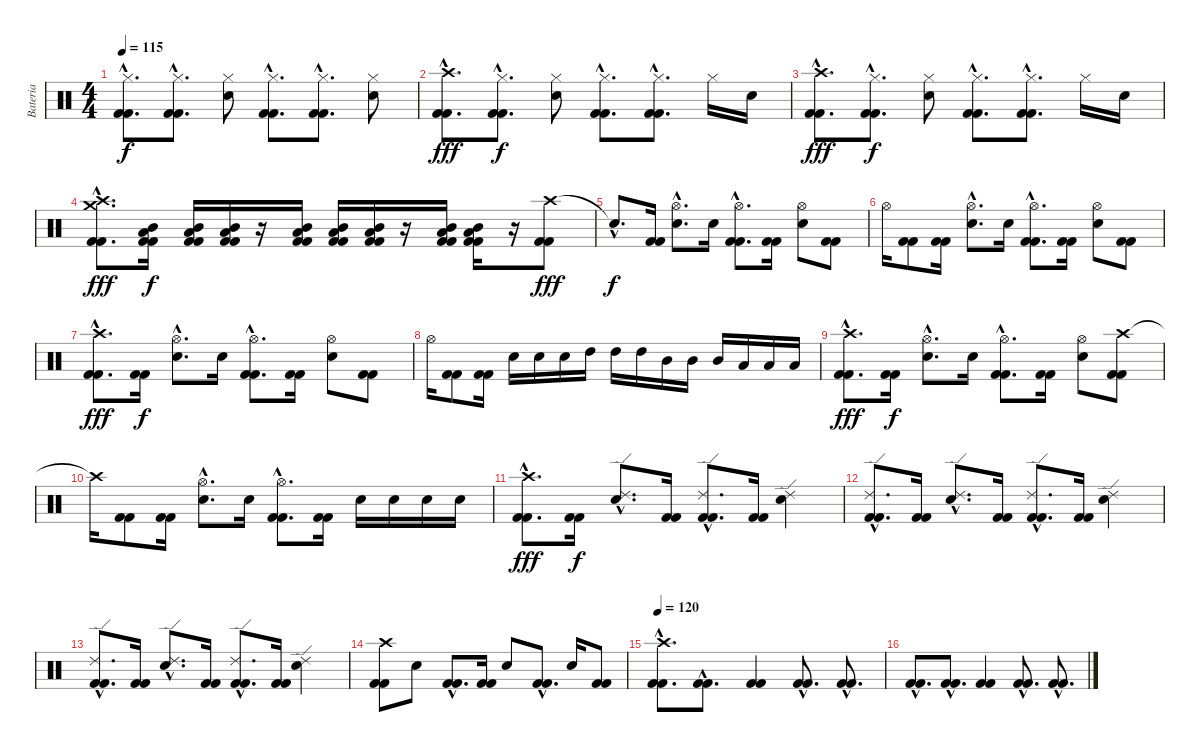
\track ("Bateria" "Bateria") {instrument percussion}
\staff {score}
\articulation defaults
\ts (4 4)
\tempo 115
\clef neutral
\ks c
("Hi-Hat (closed)"{hac} "Kick (hit) 2"{hac} "Kick (hit) 2"{hac}).8{d dy f} ("Hi-Hat (closed)"{hac} "Kick (hit) 2"{hac} "Kick (hit) 2"{hac}).8{d} ("Hi-Hat (closed)" "Electric Snare (hit)").8 ("Hi-Hat (closed)"{hac} "Kick (hit) 2"{hac} "Kick (hit) 2"{hac}).8{d} ("Hi-Hat (closed)"{hac} "Kick (hit) 2"{hac} "Kick (hit) 2"{hac}).8{d} ("Hi-Hat (closed)" "Electric Snare (hit)").8 |
("Crash high (hit)" "Kick (hit) 2"{hac} "Kick (hit) 2"{hac}).8{d dy fff} ("Hi-Hat (closed)"{hac} "Kick (hit) 2"{hac} "Kick (hit) 2"{hac}).8{d dy f} ("Hi-Hat (closed)" "Electric Snare (hit)").8 ("Hi-Hat (closed)"{hac} "Kick (hit) 2"{hac} "Kick (hit) 2"{hac}).8{d} ("Hi-Hat (closed)"{hac} "Kick (hit) 2"{hac} "Kick (hit) 2"{hac}).8{d} "Hi-Hat (closed)".16 "Electric Snare (hit)".16 |
("Crash high (hit)" "Kick (hit) 2"{hac} "Kick (hit) 2"{hac}).8{d dy fff} ("Hi-Hat (closed)"{hac} "Kick (hit) 2"{hac} "Kick (hit) 2"{hac}).8{d dy f} ("Hi-Hat (closed)" "Electric Snare (hit)").8 ("Hi-Hat (closed)"{hac} "Kick (hit) 2"{hac} "Kick (hit) 2"{hac}).8{d} ("Hi-Hat (closed)"{hac} "Kick (hit) 2"{hac} "Kick (hit) 2"{hac}).8{d} "Hi-Hat (closed)".16 "Electric Snare (hit)".16 |
("Crash high (hit)" "Crash medium (hit)" "Kick (hit) 2"{hac} "Kick (hit) 2"{hac}).8{d dy fff} ("Mid Tom (hit)" "Low Tom (hit)" "Kick (hit) 2" "Kick (hit) 2").16{dy f} ("Mid Tom (hit)" "Low Tom (hit)" "Kick (hit) 2" "Kick (hit) 2").16 ("Mid Tom (hit)" "Low Tom (hit)" "Kick (hit) 2" "Kick (hit) 2").16 r.16 ("Mid Tom (hit)" "Low Tom (hit)" "Kick (hit) 2" "Kick (hit) 2").16 ("Mid Tom (hit)" "Low Tom (hit)" "Kick (hit) 2" "Kick (hit) 2").16 ("Mid Tom (hit)" "Low Tom (hit)" "Kick (hit) 2" "Kick (hit) 2").16 r.16 ("Mid Tom (hit)" "Low Tom (hit)" "Kick (hit) 2" "Kick (hit) 2").16 ("Mid Tom (hit)" "Low Tom (hit)" "Kick (hit) 2" "Kick (hit) 2").16 r.16 ("Crash high (hit)" "Kick (hit) 2" "Kick (hit) 2").8{dy fff} |
"Snare (hit)"{hac t}.8{d dy f} ("Kick (hit) 2" "Kick (hit) 2").16 ("Hi-Hat (open)"{hac} "Electric Snare (hit)"{hac}).8{d} "Electric Snare (hit)".16 ("Hi-Hat (open)"{hac} "Kick (hit) 2"{hac} "Kick (hit) 2"{hac}).8{d} ("Kick (hit) 2" "Kick (hit) 2").16 ("Hi-Hat (open)" "Electric Snare (hit)").8 ("Kick (hit) 2" "Kick (hit) 2").8 |
"Hi-Hat (open)".16 ("Kick (hit) 2" "Kick (hit) 2").8 ("Kick (hit) 2" "Kick (hit) 2").16 ("Hi-Hat (open)"{hac} "Electric Snare (hit)"{hac}).8{d} "Electric Snare (hit)".16 ("Hi-Hat (open)"{hac} "Kick (hit) 2"{hac} "Kick (hit) 2"{hac}).8{d} ("Kick (hit) 2" "Kick (hit) 2").16 ("Hi-Hat (open)" "Electric Snare (hit)").8 ("Kick (hit) 2" "Kick (hit) 2").8 |
("Crash high (hit)" "Kick (hit) 2"{hac} "Kick (hit) 2"{hac}).8{d dy fff} ("Kick (hit) 2" "Kick (hit) 2").16{dy f} ("Hi-Hat (open)"{hac} "Electric Snare (hit)"{hac}).8{d} "Electric Snare (hit)".16 ("Hi-Hat (open)"{hac} "Kick (hit) 2"{hac} "Kick (hit) 2"{hac}).8{d} ("Kick (hit) 2" "Kick (hit) 2").16 ("Hi-Hat (open)" "Electric Snare (hit)").8 ("Kick (hit) 2" "Kick (hit) 2").8 |
"Hi-Hat (open)".16 ("Kick (hit) 2" "Kick (hit) 2").8 ("Kick (hit) 2" "Kick (hit) 2").16 "Electric Snare (hit)".16 "Electric Snare (hit)".16 "Electric Snare (hit)".16 "High Tom (hit)".16 "High Tom (hit)".16 "High Tom (hit)".16 "Mid Tom (hit)".16 "Mid Tom (hit)".16 "Mid Tom (hit)".16 "Low Tom (hit)".16 "Low Tom (hit)".16 "Low Tom (hit)".16 |
("Crash high (hit)" "Kick (hit) 2"{hac} "Kick (hit) 2"{hac}).8{d dy fff} ("Kick (hit) 2" "Kick (hit) 2").16{dy f} ("Hi-Hat (open)"{hac} "Electric Snare (hit)"{hac}).8{d} "Electric Snare (hit)".16 ("Hi-Hat (open)"{hac} "Kick (hit) 2"{hac} "Kick (hit) 2"{hac}).8{d} ("Kick (hit) 2" "Kick (hit) 2").16 ("Hi-Hat (open)" "Electric Snare (hit)").8 ("Crash high (hit)" "Kick (hit) 2" "Kick (hit) 2").8 |
"Crash high (hit)"{t}.16 ("Kick (hit) 2" "Kick (hit) 2").8 ("Kick (hit) 2" "Kick (hit) 2").16 ("Hi-Hat (open)"{hac} "Electric Snare (hit)"{hac}).8{d} "Electric Snare (hit)".16 ("Hi-Hat (open)"{hac} "Kick (hit) 2"{hac} "Kick (hit) 2"{hac}).8{d} ("Kick (hit) 2" "Kick (hit) 2").16 "Electric Snare (hit)".16 "Electric Snare (hit)".16 "Electric Snare (hit)".16 "Electric Snare (hit)".16 |
("Crash high (hit)" "Kick (hit) 2"{hac} "Kick (hit) 2"{hac}).8{d dy fff} ("Kick (hit) 2" "Kick (hit) 2").16{dy f} ("Ride (edge) 2"{hac} "Electric Snare (hit)"{hac}).8{d} ("Kick (hit) 2" "Kick (hit) 2").16 ("Ride (edge) 2"{hac} "Kick (hit) 2"{hac} "Kick (hit) 2"{hac}).8{d} ("Kick (hit) 2" "Kick (hit) 2").16 ("Ride (edge) 2" "Electric Snare (hit)").4 |
("Ride (edge) 2"{hac} "Kick (hit) 2"{hac} "Kick (hit) 2"{hac}).8{d} ("Kick (hit) 2" "Kick (hit) 2").16 ("Ride (edge) 2"{hac} "Electric Snare (hit)"{hac}).8{d} ("Kick (hit) 2" "Kick (hit) 2").16 ("Ride (edge) 2"{hac} "Kick (hit) 2"{hac} "Kick (hit) 2"{hac}).8{d} ("Kick (hit) 2" "Kick (hit) 2").16 ("Ride (edge) 2" "Electric Snare (hit)").4 |
("Ride (edge) 2"{hac} "Kick (hit) 2"{hac} "Kick (hit) 2"{hac}).8{d} ("Kick (hit) 2" "Kick (hit) 2").16 ("Ride (edge) 2"{hac} "Electric Snare (hit)"{hac}).8{d} ("Kick (hit) 2" "Kick (hit) 2").16 ("Ride (edge) 2"{hac} "Kick (hit) 2"{hac} "Kick (hit) 2"{hac}).8{d} ("Kick (hit) 2" "Kick (hit) 2").16 ("Ride (edge) 2" "Electric Snare (hit)").4 |
("Crash high (hit)" "Kick (hit) 2" "Kick (hit) 2").8 "Electric Snare (hit)".8 ("Kick (hit) 2"{hac} "Kick (hit) 2"{hac}).8{d} ("Kick (hit) 2" "Kick (hit) 2").16 "Electric Snare (hit)".8 ("Kick (hit) 2"{hac} "Kick (hit) 2"{hac}).8{d} "Electric Snare (hit)".16 ("Kick (hit) 2" "Kick (hit) 2").8 |
\tempo 120
("Crash high (hit)"{hac} "Kick (hit) 2"{hac} "Kick (hit) 2"{hac}).8{d} ("Kick (hit) 2"{hac} "Kick (hit) 2"{hac}).8{d} ("Kick (hit) 2" "Kick (hit) 2").4 ("Kick (hit) 2"{hac} "Kick (hit) 2"{hac}).8{d} ("Kick (hit) 2"{hac} "Kick (hit) 2"{hac}).8{d} |
("Kick (hit) 2"{hac} "Kick (hit) 2"{hac}).8{d} ("Kick (hit) 2"{hac} "Kick (hit) 2"{hac}).8{d} ("Kick (hit) 2" "Kick (hit) 2").4 ("Kick (hit) 2"{hac} "Kick (hit) 2"{hac}).8{d} ("Kick (hit) 2"{hac} "Kick (hit) 2"{hac}).8{d}
